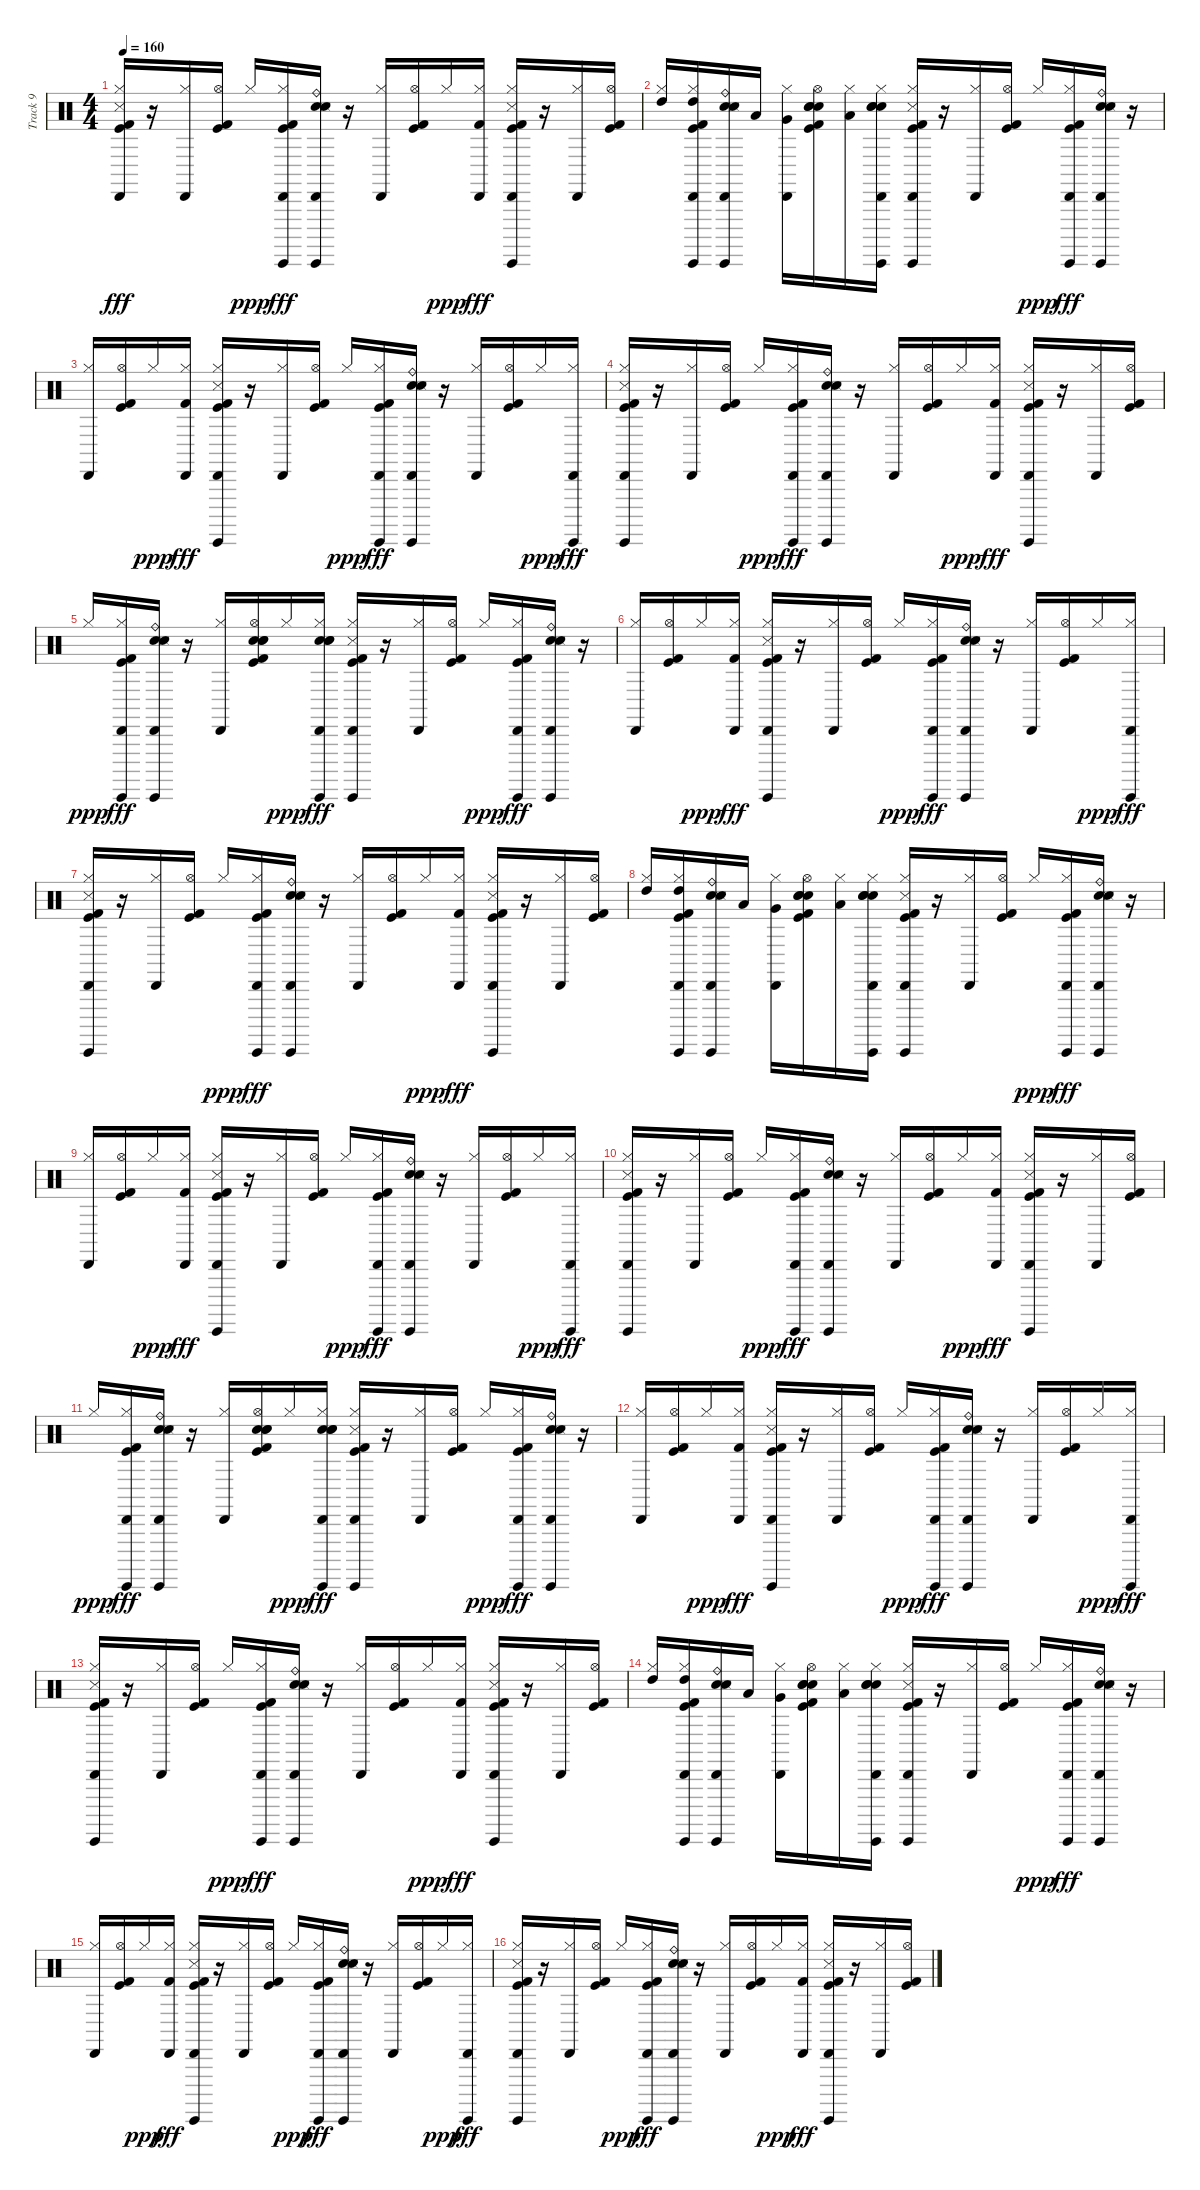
\track ("Track 9" "Track 9") {instrument percussion}
\staff {score}
\articulation defaults
\ts (4 4)
\tempo 160
\clef neutral
\ks c
("Hi-Hat (closed)" "Cabasa (hit)" "Snare (side stick) 3" "Kick (hit) 2" "Kick (hit)").16{dy fff} r.16 ("Hi-Hat (closed)" "Cabasa (hit)").16 ("Hi-Hat (open)" "Kick (hit) 2" "Kick (hit)").16 "Hi-Hat (closed)".16{dy ppp} ("Hi-Hat (closed)" "Cabasa (hit)" "Kick (hit) 2" "Kick (hit)" "Guiro (hit)").16{dy fff} ("Electric Snare (hit)" "Snare (hit) 2" "Cabasa (hit)" "Snare (side stick) 3" "Ride (bell)" "Guiro (hit)").16 r.16 ("Hi-Hat (closed)" "Cabasa (hit)").16 ("Hi-Hat (open)" "Kick (hit) 2" "Kick (hit)").16 "Hi-Hat (closed)".16{dy ppp} ("Hi-Hat (closed)" "Cabasa (hit)" "Kick (hit) 2").16{dy fff} ("Kick (hit)" "Kick (hit) 2" "Hi-Hat (closed)" "Cabasa (hit)" "Snare (side stick) 3" "Guiro (hit)").16 r.16 ("Hi-Hat (closed)" "Cabasa (hit)").16 ("Hi-Hat (open)" "Kick (hit) 2" "Kick (hit)").16 |
("Hi-Hat (closed)" "High Tom (hit)").16 ("Hi-Hat (closed)" "Cabasa (hit)" "Kick (hit) 2" "Kick (hit)" "Guiro (hit)" "High Tom (hit)").16 ("Electric Snare (hit)" "Snare (hit) 2" "Cabasa (hit)" "Snare (side stick) 3" "Ride (bell)" "Guiro (hit)").16 "Low Tom (hit)".16 ("Hi-Hat (closed)" "Cabasa (hit)" "Very Low Tom (hit)").16 ("Hi-Hat (open)" "Kick (hit) 2" "Kick (hit)" "Electric Snare (hit)" "Snare (hit) 2" "Hand Clap (hit)").16 ("Hi-Hat (closed)" "Low Floor Tom (hit)").16 ("Hi-Hat (closed)" "Cabasa (hit)" "Guiro (hit)" "Electric Snare (hit)" "Snare (hit) 2" "Hand Clap (hit)").16 ("Hi-Hat (closed)" "Cabasa (hit)" "Snare (side stick) 3" "Kick (hit) 2" "Kick (hit)" "Guiro (hit)").16 r.16 ("Hi-Hat (closed)" "Cabasa (hit)").16 ("Hi-Hat (open)" "Kick (hit) 2" "Kick (hit)").16 "Hi-Hat (closed)".16{dy ppp} ("Hi-Hat (closed)" "Cabasa (hit)" "Kick (hit) 2" "Kick (hit)" "Guiro (hit)").16{dy fff} ("Electric Snare (hit)" "Snare (hit) 2" "Cabasa (hit)" "Snare (side stick) 3" "Ride (bell)" "Guiro (hit)").16 r.16 |
("Hi-Hat (closed)" "Cabasa (hit)").16 ("Hi-Hat (open)" "Kick (hit) 2" "Kick (hit)").16 "Hi-Hat (closed)".16{dy ppp} ("Hi-Hat (closed)" "Cabasa (hit)" "Kick (hit) 2").16{dy fff} ("Kick (hit)" "Kick (hit) 2" "Hi-Hat (closed)" "Cabasa (hit)" "Snare (side stick) 3" "Guiro (hit)").16 r.16 ("Hi-Hat (closed)" "Cabasa (hit)").16 ("Hi-Hat (open)" "Kick (hit) 2" "Kick (hit)").16 "Hi-Hat (closed)".16{dy ppp} ("Hi-Hat (closed)" "Cabasa (hit)" "Kick (hit) 2" "Kick (hit)" "Guiro (hit)").16{dy fff} ("Electric Snare (hit)" "Snare (hit) 2" "Cabasa (hit)" "Snare (side stick) 3" "Ride (bell)" "Guiro (hit)").16 r.16 ("Hi-Hat (closed)" "Cabasa (hit)").16 ("Hi-Hat (open)" "Kick (hit) 2" "Kick (hit)").16 "Hi-Hat (closed)".16{dy ppp} ("Hi-Hat (closed)" "Cabasa (hit)" "Guiro (hit)").16{dy fff} |
("Hi-Hat (closed)" "Cabasa (hit)" "Snare (side stick) 3" "Kick (hit) 2" "Kick (hit)" "Guiro (hit)").16 r.16 ("Hi-Hat (closed)" "Cabasa (hit)").16 ("Hi-Hat (open)" "Kick (hit) 2" "Kick (hit)").16 "Hi-Hat (closed)".16{dy ppp} ("Hi-Hat (closed)" "Cabasa (hit)" "Kick (hit) 2" "Kick (hit)" "Guiro (hit)").16{dy fff} ("Electric Snare (hit)" "Snare (hit) 2" "Cabasa (hit)" "Snare (side stick) 3" "Ride (bell)" "Guiro (hit)").16 r.16 ("Hi-Hat (closed)" "Cabasa (hit)").16 ("Hi-Hat (open)" "Kick (hit) 2" "Kick (hit)").16 "Hi-Hat (closed)".16{dy ppp} ("Hi-Hat (closed)" "Cabasa (hit)" "Kick (hit) 2").16{dy fff} ("Kick (hit)" "Kick (hit) 2" "Hi-Hat (closed)" "Cabasa (hit)" "Snare (side stick) 3" "Guiro (hit)").16 r.16 ("Hi-Hat (closed)" "Cabasa (hit)").16 ("Hi-Hat (open)" "Kick (hit) 2" "Kick (hit)").16 |
"Hi-Hat (closed)".16{dy ppp} ("Hi-Hat (closed)" "Cabasa (hit)" "Kick (hit) 2" "Kick (hit)" "Guiro (hit)").16{dy fff} ("Electric Snare (hit)" "Snare (hit) 2" "Cabasa (hit)" "Snare (side stick) 3" "Ride (bell)" "Guiro (hit)").16 r.16 ("Hi-Hat (closed)" "Cabasa (hit)").16 ("Hi-Hat (open)" "Kick (hit) 2" "Kick (hit)" "Electric Snare (hit)" "Snare (hit) 2" "Hand Clap (hit)").16 "Hi-Hat (closed)".16{dy ppp} ("Hi-Hat (closed)" "Cabasa (hit)" "Guiro (hit)" "Electric Snare (hit)" "Snare (hit) 2" "Hand Clap (hit)").16{dy fff} ("Hi-Hat (closed)" "Cabasa (hit)" "Snare (side stick) 3" "Kick (hit) 2" "Kick (hit)" "Guiro (hit)").16 r.16 ("Hi-Hat (closed)" "Cabasa (hit)").16 ("Hi-Hat (open)" "Kick (hit) 2" "Kick (hit)").16 "Hi-Hat (closed)".16{dy ppp} ("Hi-Hat (closed)" "Cabasa (hit)" "Kick (hit) 2" "Kick (hit)" "Guiro (hit)").16{dy fff} ("Electric Snare (hit)" "Snare (hit) 2" "Cabasa (hit)" "Snare (side stick) 3" "Ride (bell)" "Guiro (hit)").16 r.16 |
("Hi-Hat (closed)" "Cabasa (hit)").16 ("Hi-Hat (open)" "Kick (hit) 2" "Kick (hit)").16 "Hi-Hat (closed)".16{dy ppp} ("Hi-Hat (closed)" "Cabasa (hit)" "Kick (hit) 2").16{dy fff} ("Kick (hit)" "Kick (hit) 2" "Hi-Hat (closed)" "Cabasa (hit)" "Snare (side stick) 3" "Guiro (hit)").16 r.16 ("Hi-Hat (closed)" "Cabasa (hit)").16 ("Hi-Hat (open)" "Kick (hit) 2" "Kick (hit)").16 "Hi-Hat (closed)".16{dy ppp} ("Hi-Hat (closed)" "Cabasa (hit)" "Kick (hit) 2" "Kick (hit)" "Guiro (hit)").16{dy fff} ("Electric Snare (hit)" "Snare (hit) 2" "Cabasa (hit)" "Snare (side stick) 3" "Ride (bell)" "Guiro (hit)").16 r.16 ("Hi-Hat (closed)" "Cabasa (hit)").16 ("Hi-Hat (open)" "Kick (hit) 2" "Kick (hit)").16 "Hi-Hat (closed)".16{dy ppp} ("Hi-Hat (closed)" "Cabasa (hit)" "Guiro (hit)").16{dy fff} |
("Hi-Hat (closed)" "Cabasa (hit)" "Snare (side stick) 3" "Kick (hit) 2" "Kick (hit)" "Guiro (hit)").16 r.16 ("Hi-Hat (closed)" "Cabasa (hit)").16 ("Hi-Hat (open)" "Kick (hit) 2" "Kick (hit)").16 "Hi-Hat (closed)".16{dy ppp} ("Hi-Hat (closed)" "Cabasa (hit)" "Kick (hit) 2" "Kick (hit)" "Guiro (hit)").16{dy fff} ("Electric Snare (hit)" "Snare (hit) 2" "Cabasa (hit)" "Snare (side stick) 3" "Ride (bell)" "Guiro (hit)").16 r.16 ("Hi-Hat (closed)" "Cabasa (hit)").16 ("Hi-Hat (open)" "Kick (hit) 2" "Kick (hit)").16 "Hi-Hat (closed)".16{dy ppp} ("Hi-Hat (closed)" "Cabasa (hit)" "Kick (hit) 2").16{dy fff} ("Kick (hit)" "Kick (hit) 2" "Hi-Hat (closed)" "Cabasa (hit)" "Snare (side stick) 3" "Guiro (hit)").16 r.16 ("Hi-Hat (closed)" "Cabasa (hit)").16 ("Hi-Hat (open)" "Kick (hit) 2" "Kick (hit)").16 |
("Hi-Hat (closed)" "High Tom (hit)").16 ("Hi-Hat (closed)" "Cabasa (hit)" "Kick (hit) 2" "Kick (hit)" "Guiro (hit)" "High Tom (hit)").16 ("Electric Snare (hit)" "Snare (hit) 2" "Cabasa (hit)" "Snare (side stick) 3" "Ride (bell)" "Guiro (hit)").16 "Low Tom (hit)".16 ("Hi-Hat (closed)" "Cabasa (hit)" "Very Low Tom (hit)").16 ("Hi-Hat (open)" "Kick (hit) 2" "Kick (hit)" "Electric Snare (hit)" "Snare (hit) 2" "Hand Clap (hit)").16 ("Hi-Hat (closed)" "Low Floor Tom (hit)").16 ("Hi-Hat (closed)" "Cabasa (hit)" "Guiro (hit)" "Electric Snare (hit)" "Snare (hit) 2" "Hand Clap (hit)").16 ("Hi-Hat (closed)" "Cabasa (hit)" "Snare (side stick) 3" "Kick (hit) 2" "Kick (hit)" "Guiro (hit)").16 r.16 ("Hi-Hat (closed)" "Cabasa (hit)").16 ("Hi-Hat (open)" "Kick (hit) 2" "Kick (hit)").16 "Hi-Hat (closed)".16{dy ppp} ("Hi-Hat (closed)" "Cabasa (hit)" "Kick (hit) 2" "Kick (hit)" "Guiro (hit)").16{dy fff} ("Electric Snare (hit)" "Snare (hit) 2" "Cabasa (hit)" "Snare (side stick) 3" "Ride (bell)" "Guiro (hit)").16 r.16 |
("Hi-Hat (closed)" "Cabasa (hit)").16 ("Hi-Hat (open)" "Kick (hit) 2" "Kick (hit)").16 "Hi-Hat (closed)".16{dy ppp} ("Hi-Hat (closed)" "Cabasa (hit)" "Kick (hit) 2").16{dy fff} ("Kick (hit)" "Kick (hit) 2" "Hi-Hat (closed)" "Cabasa (hit)" "Snare (side stick) 3" "Guiro (hit)").16 r.16 ("Hi-Hat (closed)" "Cabasa (hit)").16 ("Hi-Hat (open)" "Kick (hit) 2" "Kick (hit)").16 "Hi-Hat (closed)".16{dy ppp} ("Hi-Hat (closed)" "Cabasa (hit)" "Kick (hit) 2" "Kick (hit)" "Guiro (hit)").16{dy fff} ("Electric Snare (hit)" "Snare (hit) 2" "Cabasa (hit)" "Snare (side stick) 3" "Ride (bell)" "Guiro (hit)").16 r.16 ("Hi-Hat (closed)" "Cabasa (hit)").16 ("Hi-Hat (open)" "Kick (hit) 2" "Kick (hit)").16 "Hi-Hat (closed)".16{dy ppp} ("Hi-Hat (closed)" "Cabasa (hit)" "Guiro (hit)").16{dy fff} |
("Hi-Hat (closed)" "Cabasa (hit)" "Snare (side stick) 3" "Kick (hit) 2" "Kick (hit)" "Guiro (hit)").16 r.16 ("Hi-Hat (closed)" "Cabasa (hit)").16 ("Hi-Hat (open)" "Kick (hit) 2" "Kick (hit)").16 "Hi-Hat (closed)".16{dy ppp} ("Hi-Hat (closed)" "Cabasa (hit)" "Kick (hit) 2" "Kick (hit)" "Guiro (hit)").16{dy fff} ("Electric Snare (hit)" "Snare (hit) 2" "Cabasa (hit)" "Snare (side stick) 3" "Ride (bell)" "Guiro (hit)").16 r.16 ("Hi-Hat (closed)" "Cabasa (hit)").16 ("Hi-Hat (open)" "Kick (hit) 2" "Kick (hit)").16 "Hi-Hat (closed)".16{dy ppp} ("Hi-Hat (closed)" "Cabasa (hit)" "Kick (hit) 2").16{dy fff} ("Kick (hit)" "Kick (hit) 2" "Hi-Hat (closed)" "Cabasa (hit)" "Snare (side stick) 3" "Guiro (hit)").16 r.16 ("Hi-Hat (closed)" "Cabasa (hit)").16 ("Hi-Hat (open)" "Kick (hit) 2" "Kick (hit)").16 |
"Hi-Hat (closed)".16{dy ppp} ("Hi-Hat (closed)" "Cabasa (hit)" "Kick (hit) 2" "Kick (hit)" "Guiro (hit)").16{dy fff} ("Electric Snare (hit)" "Snare (hit) 2" "Cabasa (hit)" "Snare (side stick) 3" "Ride (bell)" "Guiro (hit)").16 r.16 ("Hi-Hat (closed)" "Cabasa (hit)").16 ("Hi-Hat (open)" "Kick (hit) 2" "Kick (hit)" "Electric Snare (hit)" "Snare (hit) 2" "Hand Clap (hit)").16 "Hi-Hat (closed)".16{dy ppp} ("Hi-Hat (closed)" "Cabasa (hit)" "Guiro (hit)" "Electric Snare (hit)" "Snare (hit) 2" "Hand Clap (hit)").16{dy fff} ("Hi-Hat (closed)" "Cabasa (hit)" "Snare (side stick) 3" "Kick (hit) 2" "Kick (hit)" "Guiro (hit)").16 r.16 ("Hi-Hat (closed)" "Cabasa (hit)").16 ("Hi-Hat (open)" "Kick (hit) 2" "Kick (hit)").16 "Hi-Hat (closed)".16{dy ppp} ("Hi-Hat (closed)" "Cabasa (hit)" "Kick (hit) 2" "Kick (hit)" "Guiro (hit)").16{dy fff} ("Electric Snare (hit)" "Snare (hit) 2" "Cabasa (hit)" "Snare (side stick) 3" "Ride (bell)" "Guiro (hit)").16 r.16 |
("Hi-Hat (closed)" "Cabasa (hit)").16 ("Hi-Hat (open)" "Kick (hit) 2" "Kick (hit)").16 "Hi-Hat (closed)".16{dy ppp} ("Hi-Hat (closed)" "Cabasa (hit)" "Kick (hit) 2").16{dy fff} ("Kick (hit)" "Kick (hit) 2" "Hi-Hat (closed)" "Cabasa (hit)" "Snare (side stick) 3" "Guiro (hit)").16 r.16 ("Hi-Hat (closed)" "Cabasa (hit)").16 ("Hi-Hat (open)" "Kick (hit) 2" "Kick (hit)").16 "Hi-Hat (closed)".16{dy ppp} ("Hi-Hat (closed)" "Cabasa (hit)" "Kick (hit) 2" "Kick (hit)" "Guiro (hit)").16{dy fff} ("Electric Snare (hit)" "Snare (hit) 2" "Cabasa (hit)" "Snare (side stick) 3" "Ride (bell)" "Guiro (hit)").16 r.16 ("Hi-Hat (closed)" "Cabasa (hit)").16 ("Hi-Hat (open)" "Kick (hit) 2" "Kick (hit)").16 "Hi-Hat (closed)".16{dy ppp} ("Hi-Hat (closed)" "Cabasa (hit)" "Guiro (hit)").16{dy fff} |
("Hi-Hat (closed)" "Cabasa (hit)" "Snare (side stick) 3" "Kick (hit) 2" "Kick (hit)" "Guiro (hit)").16 r.16 ("Hi-Hat (closed)" "Cabasa (hit)").16 ("Hi-Hat (open)" "Kick (hit) 2" "Kick (hit)").16 "Hi-Hat (closed)".16{dy ppp} ("Hi-Hat (closed)" "Cabasa (hit)" "Kick (hit) 2" "Kick (hit)" "Guiro (hit)").16{dy fff} ("Electric Snare (hit)" "Snare (hit) 2" "Cabasa (hit)" "Snare (side stick) 3" "Ride (bell)" "Guiro (hit)").16 r.16 ("Hi-Hat (closed)" "Cabasa (hit)").16 ("Hi-Hat (open)" "Kick (hit) 2" "Kick (hit)").16 "Hi-Hat (closed)".16{dy ppp} ("Hi-Hat (closed)" "Cabasa (hit)" "Kick (hit) 2").16{dy fff} ("Kick (hit)" "Kick (hit) 2" "Hi-Hat (closed)" "Cabasa (hit)" "Snare (side stick) 3" "Guiro (hit)").16 r.16 ("Hi-Hat (closed)" "Cabasa (hit)").16 ("Hi-Hat (open)" "Kick (hit) 2" "Kick (hit)").16 |
("Hi-Hat (closed)" "High Tom (hit)").16 ("Hi-Hat (closed)" "Cabasa (hit)" "Kick (hit) 2" "Kick (hit)" "Guiro (hit)" "High Tom (hit)").16 ("Electric Snare (hit)" "Snare (hit) 2" "Cabasa (hit)" "Snare (side stick) 3" "Ride (bell)" "Guiro (hit)").16 "Low Tom (hit)".16 ("Hi-Hat (closed)" "Cabasa (hit)" "Very Low Tom (hit)").16 ("Hi-Hat (open)" "Kick (hit) 2" "Kick (hit)" "Electric Snare (hit)" "Snare (hit) 2" "Hand Clap (hit)").16 ("Hi-Hat (closed)" "Low Floor Tom (hit)").16 ("Hi-Hat (closed)" "Cabasa (hit)" "Guiro (hit)" "Electric Snare (hit)" "Snare (hit) 2" "Hand Clap (hit)").16 ("Hi-Hat (closed)" "Cabasa (hit)" "Snare (side stick) 3" "Kick (hit) 2" "Kick (hit)" "Guiro (hit)").16 r.16 ("Hi-Hat (closed)" "Cabasa (hit)").16 ("Hi-Hat (open)" "Kick (hit) 2" "Kick (hit)").16 "Hi-Hat (closed)".16{dy ppp} ("Hi-Hat (closed)" "Cabasa (hit)" "Kick (hit) 2" "Kick (hit)" "Guiro (hit)").16{dy fff} ("Electric Snare (hit)" "Snare (hit) 2" "Cabasa (hit)" "Snare (side stick) 3" "Ride (bell)" "Guiro (hit)").16 r.16 |
("Hi-Hat (closed)" "Cabasa (hit)").16 ("Hi-Hat (open)" "Kick (hit) 2" "Kick (hit)").16 "Hi-Hat (closed)".16{dy ppp} ("Hi-Hat (closed)" "Cabasa (hit)" "Kick (hit) 2").16{dy fff} ("Kick (hit)" "Kick (hit) 2" "Hi-Hat (closed)" "Cabasa (hit)" "Snare (side stick) 3" "Guiro (hit)").16 r.16 ("Hi-Hat (closed)" "Cabasa (hit)").16 ("Hi-Hat (open)" "Kick (hit) 2" "Kick (hit)").16 "Hi-Hat (closed)".16{dy ppp} ("Hi-Hat (closed)" "Cabasa (hit)" "Kick (hit) 2" "Kick (hit)" "Guiro (hit)").16{dy fff} ("Electric Snare (hit)" "Snare (hit) 2" "Cabasa (hit)" "Snare (side stick) 3" "Ride (bell)" "Guiro (hit)").16 r.16 ("Hi-Hat (closed)" "Cabasa (hit)").16 ("Hi-Hat (open)" "Kick (hit) 2" "Kick (hit)").16 "Hi-Hat (closed)".16{dy ppp} ("Hi-Hat (closed)" "Cabasa (hit)" "Guiro (hit)").16{dy fff} |
("Hi-Hat (closed)" "Cabasa (hit)" "Snare (side stick) 3" "Kick (hit) 2" "Kick (hit)" "Guiro (hit)").16 r.16 ("Hi-Hat (closed)" "Cabasa (hit)").16 ("Hi-Hat (open)" "Kick (hit) 2" "Kick (hit)").16 "Hi-Hat (closed)".16{dy ppp} ("Hi-Hat (closed)" "Cabasa (hit)" "Kick (hit) 2" "Kick (hit)" "Guiro (hit)").16{dy fff} ("Electric Snare (hit)" "Snare (hit) 2" "Cabasa (hit)" "Snare (side stick) 3" "Ride (bell)" "Guiro (hit)").16 r.16 ("Hi-Hat (closed)" "Cabasa (hit)").16 ("Hi-Hat (open)" "Kick (hit) 2" "Kick (hit)").16 "Hi-Hat (closed)".16{dy ppp} ("Hi-Hat (closed)" "Cabasa (hit)" "Kick (hit) 2").16{dy fff} ("Kick (hit)" "Kick (hit) 2" "Hi-Hat (closed)" "Cabasa (hit)" "Snare (side stick) 3" "Guiro (hit)").16 r.16 ("Hi-Hat (closed)" "Cabasa (hit)").16 ("Hi-Hat (open)" "Kick (hit) 2" "Kick (hit)").16
